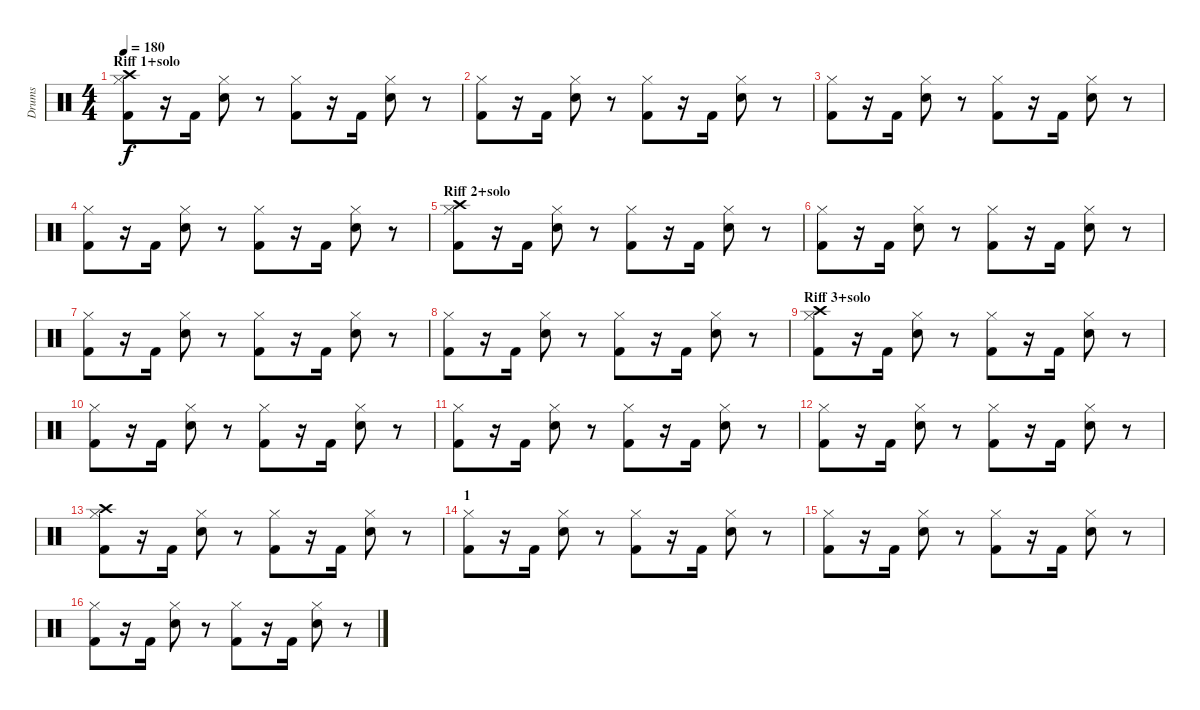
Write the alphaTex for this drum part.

\track ("Drums" "Drums") {instrument percussion}
\staff {score}
\articulation defaults
\ts (4 4)
\section ("" "Riff 1+solo")
\tempo 180
\clef neutral
\ks c
("Hi-Hat (closed)" "Crash high (hit)" "Kick (hit) 2").8{dy f} r.16 "Kick (hit) 2".16 ("Hi-Hat (closed)" "Snare (hit) 2").8 r.8 ("Hi-Hat (closed)" "Kick (hit) 2").8 r.16 "Kick (hit) 2".16 ("Hi-Hat (closed)" "Snare (hit) 2").8 r.8 |
("Hi-Hat (closed)" "Kick (hit) 2").8 r.16 "Kick (hit) 2".16 ("Hi-Hat (closed)" "Snare (hit) 2").8 r.8 ("Hi-Hat (closed)" "Kick (hit) 2").8 r.16 "Kick (hit) 2".16 ("Hi-Hat (closed)" "Snare (hit) 2").8 r.8 |
("Hi-Hat (closed)" "Kick (hit) 2").8 r.16 "Kick (hit) 2".16 ("Hi-Hat (closed)" "Snare (hit) 2").8 r.8 ("Hi-Hat (closed)" "Kick (hit) 2").8 r.16 "Kick (hit) 2".16 ("Hi-Hat (closed)" "Snare (hit) 2").8 r.8 |
("Hi-Hat (closed)" "Kick (hit) 2").8 r.16 "Kick (hit) 2".16 ("Hi-Hat (closed)" "Snare (hit) 2").8 r.8 ("Hi-Hat (closed)" "Kick (hit) 2").8 r.16 "Kick (hit) 2".16 ("Hi-Hat (closed)" "Snare (hit) 2").8 r.8 |
\section ("" "Riff 2+solo")
("Hi-Hat (closed)" "Crash high (hit)" "Kick (hit) 2").8 r.16 "Kick (hit) 2".16 ("Hi-Hat (closed)" "Snare (hit) 2").8 r.8 ("Hi-Hat (closed)" "Kick (hit) 2").8 r.16 "Kick (hit) 2".16 ("Hi-Hat (closed)" "Snare (hit) 2").8 r.8 |
("Hi-Hat (closed)" "Kick (hit) 2").8 r.16 "Kick (hit) 2".16 ("Hi-Hat (closed)" "Snare (hit) 2").8 r.8 ("Hi-Hat (closed)" "Kick (hit) 2").8 r.16 "Kick (hit) 2".16 ("Hi-Hat (closed)" "Snare (hit) 2").8 r.8 |
("Hi-Hat (closed)" "Kick (hit) 2").8 r.16 "Kick (hit) 2".16 ("Hi-Hat (closed)" "Snare (hit) 2").8 r.8 ("Hi-Hat (closed)" "Kick (hit) 2").8 r.16 "Kick (hit) 2".16 ("Hi-Hat (closed)" "Snare (hit) 2").8 r.8 |
("Hi-Hat (closed)" "Kick (hit) 2").8 r.16 "Kick (hit) 2".16 ("Hi-Hat (closed)" "Snare (hit) 2").8 r.8 ("Hi-Hat (closed)" "Kick (hit) 2").8 r.16 "Kick (hit) 2".16 ("Hi-Hat (closed)" "Snare (hit) 2").8 r.8 |
\section ("" "Riff 3+solo")
("Hi-Hat (closed)" "Crash high (hit)" "Kick (hit) 2").8 r.16 "Kick (hit) 2".16 ("Hi-Hat (closed)" "Snare (hit) 2").8 r.8 ("Hi-Hat (closed)" "Kick (hit) 2").8 r.16 "Kick (hit) 2".16 ("Hi-Hat (closed)" "Snare (hit) 2").8 r.8 |
("Hi-Hat (closed)" "Kick (hit) 2").8 r.16 "Kick (hit) 2".16 ("Hi-Hat (closed)" "Snare (hit) 2").8 r.8 ("Hi-Hat (closed)" "Kick (hit) 2").8 r.16 "Kick (hit) 2".16 ("Hi-Hat (closed)" "Snare (hit) 2").8 r.8 |
("Hi-Hat (closed)" "Kick (hit) 2").8 r.16 "Kick (hit) 2".16 ("Hi-Hat (closed)" "Snare (hit) 2").8 r.8 ("Hi-Hat (closed)" "Kick (hit) 2").8 r.16 "Kick (hit) 2".16 ("Hi-Hat (closed)" "Snare (hit) 2").8 r.8 |
("Hi-Hat (closed)" "Kick (hit) 2").8 r.16 "Kick (hit) 2".16 ("Hi-Hat (closed)" "Snare (hit) 2").8 r.8 ("Hi-Hat (closed)" "Kick (hit) 2").8 r.16 "Kick (hit) 2".16 ("Hi-Hat (closed)" "Snare (hit) 2").8 r.8 |
("Hi-Hat (closed)" "Crash high (hit)" "Kick (hit) 2").8 r.16 "Kick (hit) 2".16 ("Hi-Hat (closed)" "Snare (hit) 2").8 r.8 ("Hi-Hat (closed)" "Kick (hit) 2").8 r.16 "Kick (hit) 2".16 ("Hi-Hat (closed)" "Snare (hit) 2").8 r.8 |
\section ("" "1")
("Hi-Hat (closed)" "Kick (hit) 2").8 r.16 "Kick (hit) 2".16 ("Hi-Hat (closed)" "Snare (hit) 2").8 r.8 ("Hi-Hat (closed)" "Kick (hit) 2").8 r.16 "Kick (hit) 2".16 ("Hi-Hat (closed)" "Snare (hit) 2").8 r.8 |
("Hi-Hat (closed)" "Kick (hit) 2").8 r.16 "Kick (hit) 2".16 ("Hi-Hat (closed)" "Snare (hit) 2").8 r.8 ("Hi-Hat (closed)" "Kick (hit) 2").8 r.16 "Kick (hit) 2".16 ("Hi-Hat (closed)" "Snare (hit) 2").8 r.8 |
("Hi-Hat (closed)" "Kick (hit) 2").8 r.16 "Kick (hit) 2".16 ("Hi-Hat (closed)" "Snare (hit) 2").8 r.8 ("Hi-Hat (closed)" "Kick (hit) 2").8 r.16 "Kick (hit) 2".16 ("Hi-Hat (closed)" "Snare (hit) 2").8 r.8
